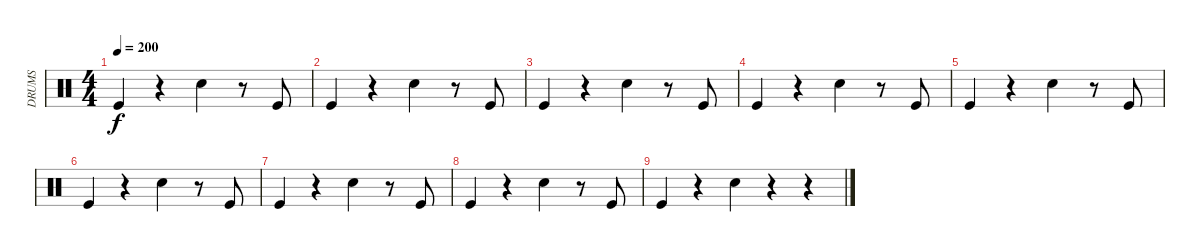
\track ("DRUMS" "DRUMS") {instrument percussion}
\staff {score}
\articulation defaults
\ts (4 4)
\tempo 200
\clef neutral
\ks c "Kick (hit)".4{dy f}
r.4 "Snare (hit) 2".4 r.8 "Kick (hit)".8 |
"Kick (hit)".4 r.4 "Snare (hit) 2".4 r.8 "Kick (hit)".8 |
"Kick (hit)".4 r.4 "Snare (hit) 2".4 r.8 "Kick (hit)".8 |
"Kick (hit)".4 r.4 "Snare (hit) 2".4 r.8 "Kick (hit)".8 |
"Kick (hit)".4 r.4 "Snare (hit) 2".4 r.8 "Kick (hit)".8 |
"Kick (hit)".4 r.4 "Snare (hit) 2".4 r.8 "Kick (hit)".8 |
"Kick (hit)".4 r.4 "Snare (hit) 2".4 r.8 "Kick (hit)".8 |
"Kick (hit)".4 r.4 "Snare (hit) 2".4 r.8 "Kick (hit)".8 |
"Kick (hit)".4 r.4 "Snare (hit) 2".4 r.4 r.4
